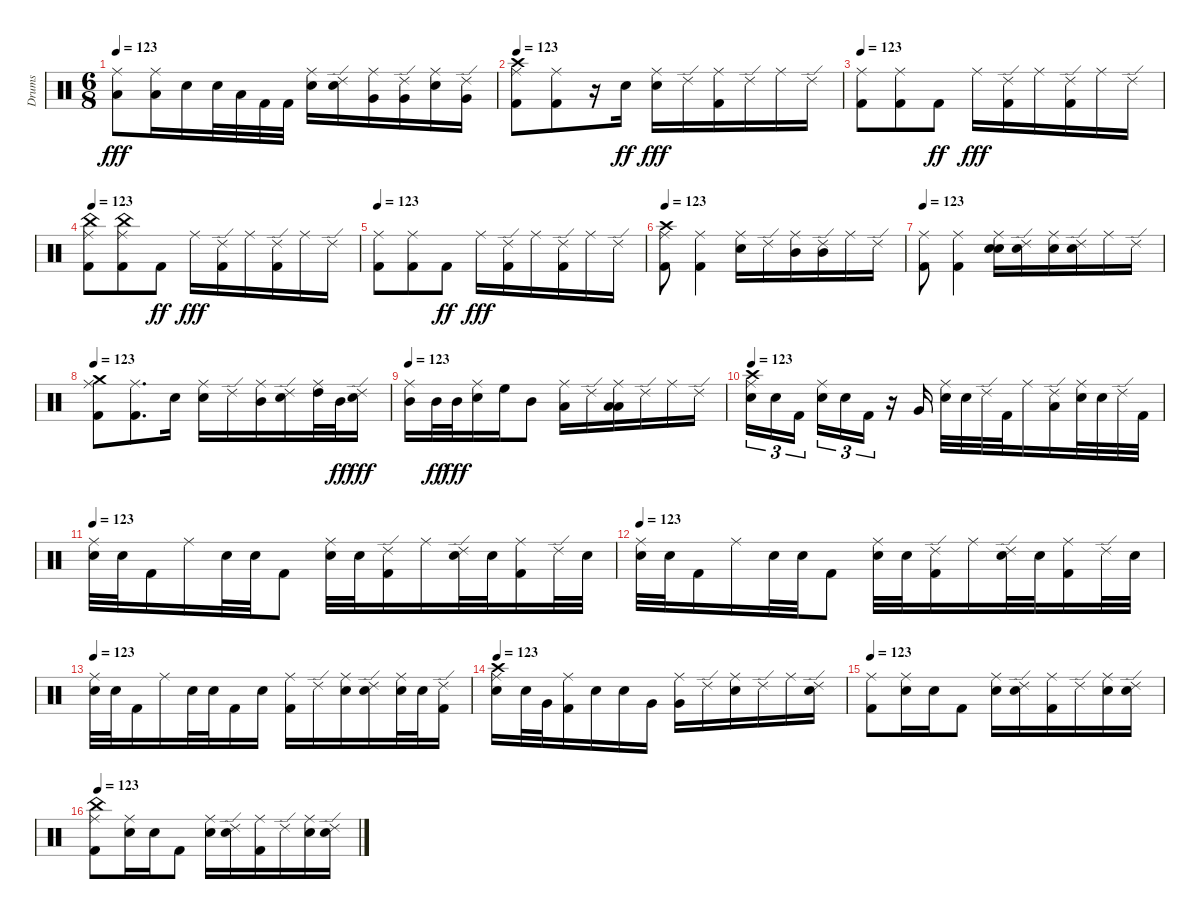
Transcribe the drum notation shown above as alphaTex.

\track ("Drums" "Drums") {instrument percussion}
\staff {score}
\articulation defaults
\ts (6 8)
\tempo 123
\clef neutral
\ks c
("Low Floor Tom (hit)" "Ride (middle)").8{dy fff} ("Low Floor Tom (hit)" "Ride (middle)").16 "Snare (hit) 2".16 "Snare (hit) 2".32 "Low Floor Tom (hit)".32 "Kick (hit) 2".32 "Kick (hit) 2".32 ("Snare (hit) 2" "Ride (middle)").16 ("Snare (hit) 2" "Ride (edge) 2").16 ("Very Low Tom (hit)" "Ride (middle)").16 ("Very Low Tom (hit)" "Ride (edge) 2").16 ("Snare (hit) 2" "Ride (middle)").16 ("Very Low Tom (hit)" "Ride (edge) 2").16 |
\tempo 123
("Kick (hit) 2" "Ride (middle)" "Crash high (hit)").8 ("Kick (hit) 2" "Ride (middle)").8 r.16 "Snare (hit) 2".16{dy ff} ("Snare (hit) 2" "Ride (middle)").16{dy fff} "Ride (edge) 2".16 ("Kick (hit) 2" "Ride (middle)").16 "Ride (edge) 2".16 "Ride (middle)".16 "Ride (edge) 2".16 |
\tempo 123
("Kick (hit) 2" "Ride (middle)").8 ("Kick (hit) 2" "Ride (middle)").8 "Kick (hit) 2".8{dy ff} "Ride (middle)".16{dy fff} ("Kick (hit) 2" "Ride (edge) 2").16 "Ride (middle)".16 ("Kick (hit) 2" "Ride (edge) 2").16 "Ride (middle)".16 "Ride (edge) 2".16 |
\tempo 123
("Kick (hit) 2" "Ride (middle)" "China (hit)").8 ("Kick (hit) 2" "Ride (middle)" "China (hit)").8 "Kick (hit) 2".8{dy ff} "Ride (middle)".16{dy fff} ("Kick (hit) 2" "Ride (edge) 2").16 "Ride (middle)".16 ("Kick (hit) 2" "Ride (edge) 2").16 "Ride (middle)".16 "Ride (edge) 2".16 |
\tempo 123
("Kick (hit) 2" "Ride (middle)").8 ("Kick (hit) 2" "Ride (middle)").8 "Kick (hit) 2".8{dy ff} "Ride (middle)".16{dy fff} ("Kick (hit) 2" "Ride (edge) 2").16 "Ride (middle)".16 ("Kick (hit) 2" "Ride (edge) 2").16 "Ride (middle)".16 "Ride (edge) 2".16 |
\tempo 123
("Kick (hit) 2" "Ride (middle)" "Crash high (hit)").8 ("Kick (hit) 2" "Ride (middle)").4 ("Snare (hit) 2" "Ride (middle)").16 "Ride (edge) 2".16 ("Mid Tom (hit)" "Ride (middle)").16 ("Mid Tom (hit)" "Ride (edge) 2").16 "Ride (middle)".16 "Ride (edge) 2".16 |
\tempo 123
("Kick (hit) 2" "Ride (middle)").8 ("Kick (hit) 2" "Ride (middle)").4 ("Snare (hit) 2" "Snare (hit) 2" "Ride (middle)").16 ("Snare (hit) 2" "Ride (edge) 2").16 ("Snare (hit) 2" "Ride (middle)").16 ("Snare (hit) 2" "Ride (edge) 2").16 "Ride (middle)".16 "Ride (edge) 2".16 |
\tempo 123
("Kick (hit) 2" "Ride (middle)" "Crash medium (hit)").8 ("Kick (hit) 2" "Ride (middle)").8{d} "Snare (hit) 2".16 ("Snare (hit) 2" "Ride (middle)").16 "Ride (edge) 2".16 ("Mid Tom (hit)" "Ride (middle)").16 ("Snare (hit) 2" "Ride (edge) 2").16 ("High Tom (hit)" "Ride (middle)").32 "Mid Tom (hit)".32{dy ff} ("Electric Snare (hit)" "Ride (edge) 2").16{dy fff} |
\tempo 123
("Mid Tom (hit)" "Ride (middle)").16 "Mid Tom (hit)".32{dy ff} "Mid Tom (hit)".32{dy fff} ("Snare (hit) 2" "Ride (middle)").16 "High Floor Tom (hit)".16 "Mid Tom (hit)".8 ("Low Tom (hit)" "Ride (middle)").16 "Ride (edge) 2".16 ("Low Tom (hit)" "Ride (middle)" "Low Tom (hit)").16 "Ride (edge) 2".16 "Ride (middle)".16 "Ride (edge) 2".16 |
\tempo 123
("Electric Snare (hit)" "Ride (middle)" "Crash high (hit)").16{tu (3 2)} "Electric Snare (hit)".16{tu (3 2)} "Kick (hit) 2".16{tu (3 2) beam splitsecondary} ("Electric Snare (hit)" "Ride (middle)").16{tu (3 2)} "Electric Snare (hit)".16{tu (3 2)} "Kick (hit) 2".16{tu (3 2)} r.16 "Very Low Tom (hit)".16 ("Electric Snare (hit)" "Ride (middle)").32 "Electric Snare (hit)".32 "Ride (edge) 2".32 "Kick (hit) 2".32 "Ride (middle)".16 ("Low Floor Tom (hit)" "Ride (edge) 2").16 ("Electric Snare (hit)" "Ride (middle)").32 "Electric Snare (hit)".32 "Ride (edge) 2".32 "Kick (hit) 2".32 |
\tempo 123
("Electric Snare (hit)" "Ride (middle)").32 "Electric Snare (hit)".32 "Kick (hit) 2".16 "Ride (middle)".16 "Electric Snare (hit)".32 "Electric Snare (hit)".32 "Kick (hit) 2".8 ("Electric Snare (hit)" "Ride (middle)").32 "Electric Snare (hit)".32 ("Kick (hit) 2" "Ride (edge) 2").16 "Ride (middle)".16 ("Snare (hit) 2" "Ride (edge) 2").32 "Snare (hit) 2".32 ("Kick (hit) 2" "Ride (middle)").16 "Ride (edge) 2".32 "Snare (hit) 2".32 |
\tempo 123
("Electric Snare (hit)" "Ride (middle)").32 "Electric Snare (hit)".32 "Kick (hit) 2".16 "Ride (middle)".16 "Electric Snare (hit)".32 "Electric Snare (hit)".32 "Kick (hit) 2".8 ("Electric Snare (hit)" "Ride (middle)").32 "Electric Snare (hit)".32 ("Kick (hit) 2" "Ride (edge) 2").16 "Ride (middle)".16 ("Snare (hit) 2" "Ride (edge) 2").32 "Snare (hit) 2".32 ("Kick (hit) 2" "Ride (middle)").16 "Ride (edge) 2".32 "Snare (hit) 2".32 |
\tempo 123
("Electric Snare (hit)" "Ride (middle)").32 "Electric Snare (hit)".32 "Kick (hit) 2".16 "Ride (middle)".16 "Electric Snare (hit)".32 "Electric Snare (hit)".32 "Kick (hit) 2".16 "Snare (hit) 2".16 ("Kick (hit) 2" "Ride (middle)").16 "Ride (edge) 2".16 ("Snare (hit) 2" "Ride (middle)").16 ("Snare (hit) 2" "Ride (edge) 2").16 ("Snare (hit) 2" "Ride (middle)").32 "Electric Snare (hit)".32 ("Kick (hit) 2" "Ride (edge) 2").16 |
\tempo 123
("Snare (hit) 2" "Ride (middle)" "Crash high (hit)").16 "Electric Snare (hit)".32 "Very Low Tom (hit)".32 ("Kick (hit) 2" "Ride (middle)").16 "Snare (hit) 2".16 "Electric Snare (hit)".16 "Very Low Tom (hit)".16 ("Very Low Tom (hit)" "Ride (middle)").16 "Ride (edge) 2".16 ("Snare (hit) 2" "Ride (middle)").16 "Ride (edge) 2".16 "Ride (middle)".16 ("Snare (hit) 2" "Ride (edge) 2").16 |
\tempo 123
("Kick (hit) 2" "Ride (middle)").8 ("Electric Snare (hit)" "Ride (middle)").16 "Snare (hit) 2".16 "Kick (hit) 2".8 ("Snare (hit) 2" "Ride (middle)").16 ("Electric Snare (hit)" "Ride (edge) 2").16 ("Kick (hit) 2" "Ride (middle)").16 "Ride (edge) 2".16 ("Snare (hit) 2" "Ride (middle)").16 ("Snare (hit) 2" "Ride (edge) 2").16 |
\tempo 123
("Kick (hit) 2" "Ride (middle)" "China (hit)").8 ("Electric Snare (hit)" "Ride (middle)").16 "Snare (hit) 2".16 "Kick (hit) 2".8 ("Snare (hit) 2" "Ride (middle)").16 ("Electric Snare (hit)" "Ride (edge) 2").16 ("Kick (hit) 2" "Ride (middle)").16 "Ride (edge) 2".16 ("Snare (hit) 2" "Ride (middle)").16 ("Snare (hit) 2" "Ride (edge) 2").16
